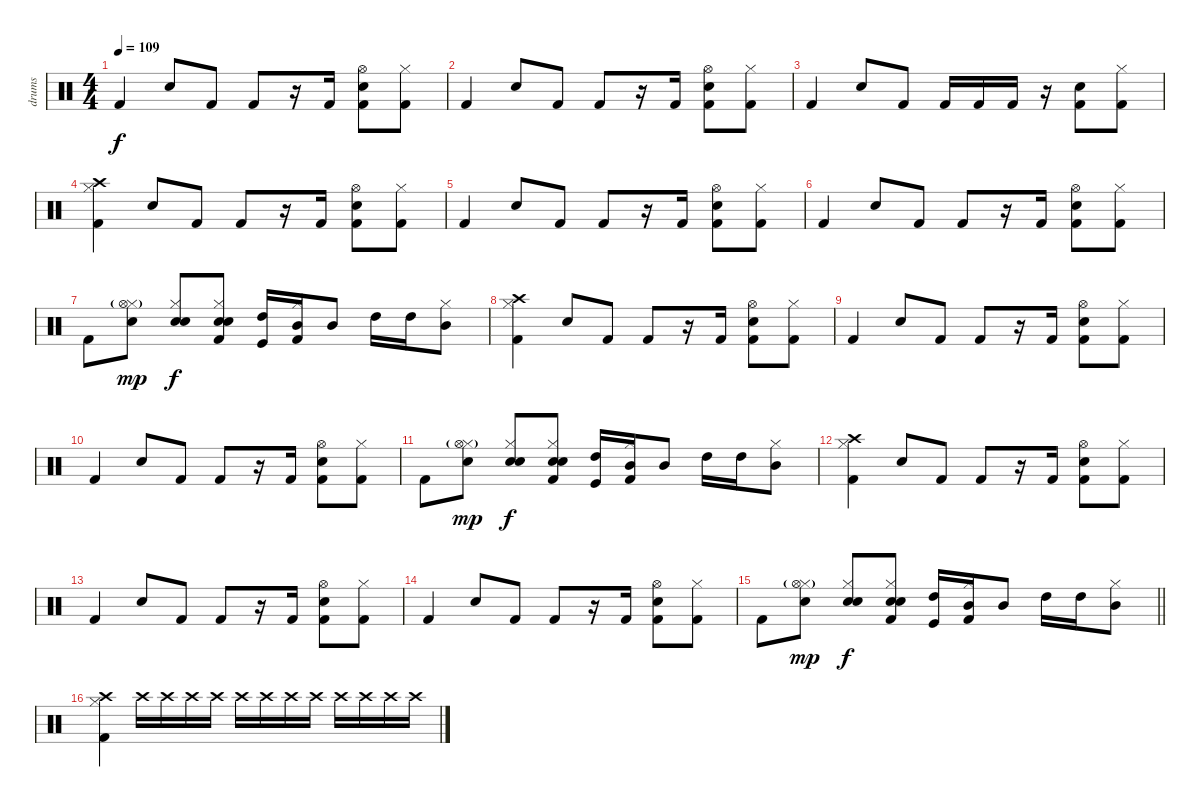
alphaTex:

\track ("drums" "drums") {instrument percussion}
\staff {score}
\articulation defaults
\ts (4 4)
\tempo 109
\clef neutral
\ks c "Kick (hit) 2".4{dy f} "Snare (hit) 2".8 "Kick (hit) 2".8 "Kick (hit) 2".8
r.16 "Kick (hit) 2".16 ("Snare (hit) 2" "Kick (hit) 2" "Hi-Hat (open)").8 ("Hi-Hat (closed)" "Kick (hit) 2").8 |
"Kick (hit) 2".4 "Snare (hit) 2".8 "Kick (hit) 2".8 "Kick (hit) 2".8 r.16 "Kick (hit) 2".16 ("Snare (hit) 2" "Kick (hit) 2" "Hi-Hat (open)").8 ("Hi-Hat (closed)" "Kick (hit) 2").8 |
"Kick (hit) 2".4 "Snare (hit) 2".8 "Kick (hit) 2".8 "Kick (hit) 2".16 "Kick (hit) 2".16 "Kick (hit) 2".16 r.16 ("Snare (hit) 2" "Kick (hit) 2").8 ("Hi-Hat (closed)" "Kick (hit) 2").8 |
("Hi-Hat (closed)" "Kick (hit) 2" "Crash high (hit)").4 "Snare (hit) 2".8 "Kick (hit) 2".8 "Kick (hit) 2".8 r.16 "Kick (hit) 2".16 ("Snare (hit) 2" "Kick (hit) 2" "Hi-Hat (open)").8 ("Hi-Hat (closed)" "Kick (hit) 2").8 |
"Kick (hit) 2".4 "Snare (hit) 2".8 "Kick (hit) 2".8 "Kick (hit) 2".8 r.16 "Kick (hit) 2".16 ("Snare (hit) 2" "Kick (hit) 2" "Hi-Hat (open)").8 ("Hi-Hat (closed)" "Kick (hit) 2").8 |
"Kick (hit) 2".4 "Snare (hit) 2".8 "Kick (hit) 2".8 "Kick (hit) 2".8 r.16 "Kick (hit) 2".16 ("Snare (hit) 2" "Kick (hit) 2" "Hi-Hat (open)").8 ("Hi-Hat (closed)" "Kick (hit) 2").8 |
"Kick (hit) 2".8 ("Hi-Hat (closed)" "Hi-Hat (open)"{g} "Snare (hit) 2").8{dy mp} ("Hi-Hat (closed)" "Snare (hit) 2" "Electric Snare (hit)").8{dy f} ("Hi-Hat (closed)" "Kick (hit) 2" "Snare (hit) 2" "Electric Snare (hit)").8 ("Kick (hit)" "High Tom (hit)").16 ("Hi-Hat (closed)" "Kick (hit) 2" "Mid Tom (hit)").16 "Mid Tom (hit)".8 "High Tom (hit)".16 "High Tom (hit)".16 ("Hi-Hat (closed)" "Mid Tom (hit)").8 |
("Hi-Hat (closed)" "Kick (hit) 2" "Crash high (hit)").4 "Snare (hit) 2".8 "Kick (hit) 2".8 "Kick (hit) 2".8 r.16 "Kick (hit) 2".16 ("Snare (hit) 2" "Kick (hit) 2" "Hi-Hat (open)").8 ("Hi-Hat (closed)" "Kick (hit) 2").8 |
"Kick (hit) 2".4 "Snare (hit) 2".8 "Kick (hit) 2".8 "Kick (hit) 2".8 r.16 "Kick (hit) 2".16 ("Snare (hit) 2" "Kick (hit) 2" "Hi-Hat (open)").8 ("Hi-Hat (closed)" "Kick (hit) 2").8 |
"Kick (hit) 2".4 "Snare (hit) 2".8 "Kick (hit) 2".8 "Kick (hit) 2".8 r.16 "Kick (hit) 2".16 ("Snare (hit) 2" "Kick (hit) 2" "Hi-Hat (open)").8 ("Hi-Hat (closed)" "Kick (hit) 2").8 |
"Kick (hit) 2".8 ("Hi-Hat (closed)" "Hi-Hat (open)"{g} "Snare (hit) 2").8{dy mp} ("Hi-Hat (closed)" "Snare (hit) 2" "Electric Snare (hit)").8{dy f} ("Hi-Hat (closed)" "Kick (hit) 2" "Snare (hit) 2" "Electric Snare (hit)").8 ("Kick (hit)" "High Tom (hit)").16 ("Hi-Hat (closed)" "Kick (hit) 2" "Mid Tom (hit)").16 "Mid Tom (hit)".8 "High Tom (hit)".16 "High Tom (hit)".16 ("Hi-Hat (closed)" "Mid Tom (hit)").8 |
("Hi-Hat (closed)" "Kick (hit) 2" "Crash high (hit)").4 "Snare (hit) 2".8 "Kick (hit) 2".8 "Kick (hit) 2".8 r.16 "Kick (hit) 2".16 ("Snare (hit) 2" "Kick (hit) 2" "Hi-Hat (open)").8 ("Hi-Hat (closed)" "Kick (hit) 2").8 |
"Kick (hit) 2".4 "Snare (hit) 2".8 "Kick (hit) 2".8 "Kick (hit) 2".8 r.16 "Kick (hit) 2".16 ("Snare (hit) 2" "Kick (hit) 2" "Hi-Hat (open)").8 ("Hi-Hat (closed)" "Kick (hit) 2").8 |
"Kick (hit) 2".4 "Snare (hit) 2".8 "Kick (hit) 2".8 "Kick (hit) 2".8 r.16 "Kick (hit) 2".16 ("Snare (hit) 2" "Kick (hit) 2" "Hi-Hat (open)").8 ("Hi-Hat (closed)" "Kick (hit) 2").8 |
\barLineRight lightlight "Kick (hit) 2".8
("Hi-Hat (closed)" "Hi-Hat (open)"{g} "Snare (hit) 2").8{dy mp} ("Hi-Hat (closed)" "Snare (hit) 2" "Electric Snare (hit)").8{dy f} ("Hi-Hat (closed)" "Kick (hit) 2" "Snare (hit) 2" "Electric Snare (hit)").8 ("Kick (hit)" "High Tom (hit)").16 ("Hi-Hat (closed)" "Kick (hit) 2" "Mid Tom (hit)").16 "Mid Tom (hit)".8 "High Tom (hit)".16 "High Tom (hit)".16 ("Hi-Hat (closed)" "Mid Tom (hit)").8 |
("Hi-Hat (closed)" "Kick (hit) 2" "Crash high (hit)").4 "Crash high (hit)".16 "Crash high (hit)".16 "Crash high (hit)".16 "Crash high (hit)".16 "Crash high (hit)".16 "Crash high (hit)".16 "Crash high (hit)".16 "Crash high (hit)".16 "Crash high (hit)".16 "Crash high (hit)".16 "Crash high (hit)".16 "Crash high (hit)".16
